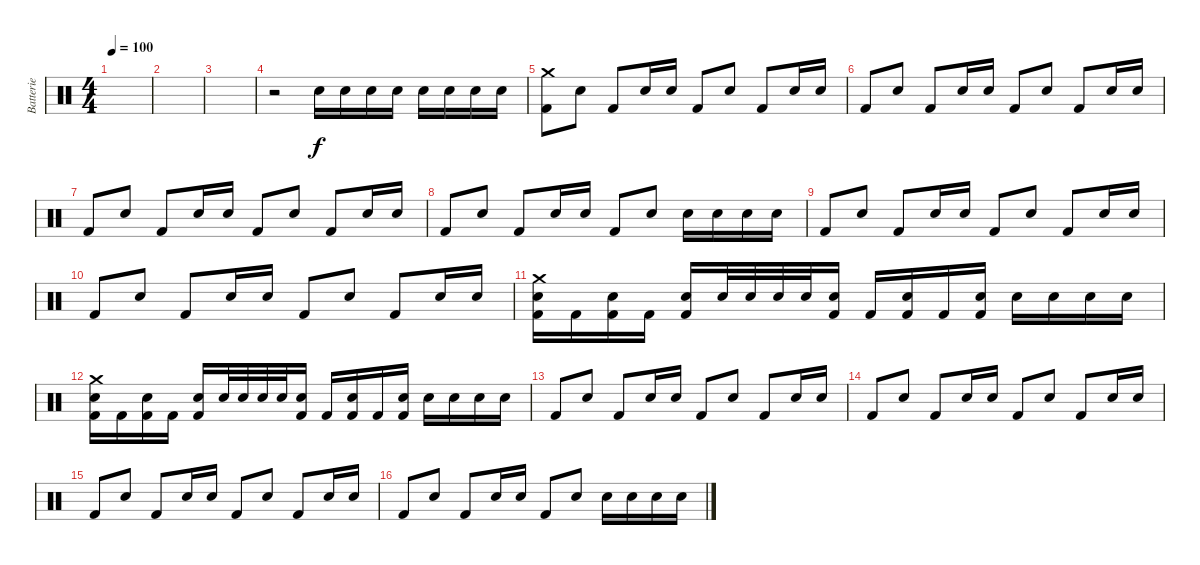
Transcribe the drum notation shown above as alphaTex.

\track ("Batterie" "Batterie") {instrument percussion}
\staff {score}
\articulation defaults
\ts (4 4)
\tempo 100
\clef neutral
\ks c
|
|
|
r.2 "Electric Snare (hit)".16 "Electric Snare (hit)".16 "Electric Snare (hit)".16 "Electric Snare (hit)".16 "Electric Snare (hit)".16 "Electric Snare (hit)".16 "Electric Snare (hit)".16 "Electric Snare (hit)".16 |
("Kick (hit) 2" "Crash medium (hit)").8 "Electric Snare (hit)".8 "Kick (hit) 2".8 "Electric Snare (hit)".16 "Electric Snare (hit)".16 "Kick (hit) 2".8 "Electric Snare (hit)".8 "Kick (hit) 2".8 "Electric Snare (hit)".16 "Electric Snare (hit)".16 |
"Kick (hit) 2".8 "Electric Snare (hit)".8 "Kick (hit) 2".8 "Electric Snare (hit)".16 "Electric Snare (hit)".16 "Kick (hit) 2".8 "Electric Snare (hit)".8 "Kick (hit) 2".8 "Electric Snare (hit)".16 "Electric Snare (hit)".16 |
"Kick (hit) 2".8 "Electric Snare (hit)".8 "Kick (hit) 2".8 "Electric Snare (hit)".16 "Electric Snare (hit)".16 "Kick (hit) 2".8 "Electric Snare (hit)".8 "Kick (hit) 2".8 "Electric Snare (hit)".16 "Electric Snare (hit)".16 |
"Kick (hit) 2".8 "Electric Snare (hit)".8 "Kick (hit) 2".8 "Electric Snare (hit)".16 "Electric Snare (hit)".16 "Kick (hit) 2".8 "Electric Snare (hit)".8 "Electric Snare (hit)".16 "Electric Snare (hit)".16 "Electric Snare (hit)".16 "Electric Snare (hit)".16 |
"Kick (hit) 2".8 "Electric Snare (hit)".8 "Kick (hit) 2".8 "Electric Snare (hit)".16 "Electric Snare (hit)".16 "Kick (hit) 2".8 "Electric Snare (hit)".8 "Kick (hit) 2".8 "Electric Snare (hit)".16 "Electric Snare (hit)".16 |
"Kick (hit) 2".8 "Electric Snare (hit)".8 "Kick (hit) 2".8 "Electric Snare (hit)".16 "Electric Snare (hit)".16 "Kick (hit) 2".8 "Electric Snare (hit)".8 "Kick (hit) 2".8 "Electric Snare (hit)".16 "Electric Snare (hit)".16 |
("Kick (hit) 2" "Electric Snare (hit)" "Crash medium (hit)").16 "Kick (hit) 2".16 ("Kick (hit) 2" "Electric Snare (hit)").16 "Kick (hit) 2".16 ("Kick (hit) 2" "Electric Snare (hit)").16 "Electric Snare (hit)".32 "Electric Snare (hit)".32 "Electric Snare (hit)".32 "Electric Snare (hit)".32 ("Kick (hit) 2" "Electric Snare (hit)").16 "Kick (hit) 2".16 ("Kick (hit) 2" "Electric Snare (hit)").16 "Kick (hit) 2".16 ("Kick (hit) 2" "Electric Snare (hit)").16 "Electric Snare (hit)".16 "Electric Snare (hit)".16 "Electric Snare (hit)".16 "Electric Snare (hit)".16 |
("Kick (hit) 2" "Electric Snare (hit)" "Crash medium (hit)").16 "Kick (hit) 2".16 ("Kick (hit) 2" "Electric Snare (hit)").16 "Kick (hit) 2".16 ("Kick (hit) 2" "Electric Snare (hit)").16 "Electric Snare (hit)".32 "Electric Snare (hit)".32 "Electric Snare (hit)".32 "Electric Snare (hit)".32 ("Kick (hit) 2" "Electric Snare (hit)").16 "Kick (hit) 2".16 ("Kick (hit) 2" "Electric Snare (hit)").16 "Kick (hit) 2".16 ("Kick (hit) 2" "Electric Snare (hit)").16 "Electric Snare (hit)".16 "Electric Snare (hit)".16 "Electric Snare (hit)".16 "Electric Snare (hit)".16 |
"Kick (hit) 2".8 "Electric Snare (hit)".8 "Kick (hit) 2".8 "Electric Snare (hit)".16 "Electric Snare (hit)".16 "Kick (hit) 2".8 "Electric Snare (hit)".8 "Kick (hit) 2".8 "Electric Snare (hit)".16 "Electric Snare (hit)".16 |
"Kick (hit) 2".8 "Electric Snare (hit)".8 "Kick (hit) 2".8 "Electric Snare (hit)".16 "Electric Snare (hit)".16 "Kick (hit) 2".8 "Electric Snare (hit)".8 "Kick (hit) 2".8 "Electric Snare (hit)".16 "Electric Snare (hit)".16 |
"Kick (hit) 2".8 "Electric Snare (hit)".8 "Kick (hit) 2".8 "Electric Snare (hit)".16 "Electric Snare (hit)".16 "Kick (hit) 2".8 "Electric Snare (hit)".8 "Kick (hit) 2".8 "Electric Snare (hit)".16 "Electric Snare (hit)".16 |
"Kick (hit) 2".8 "Electric Snare (hit)".8 "Kick (hit) 2".8 "Electric Snare (hit)".16 "Electric Snare (hit)".16 "Kick (hit) 2".8 "Electric Snare (hit)".8 "Electric Snare (hit)".16 "Electric Snare (hit)".16 "Electric Snare (hit)".16 "Electric Snare (hit)".16
